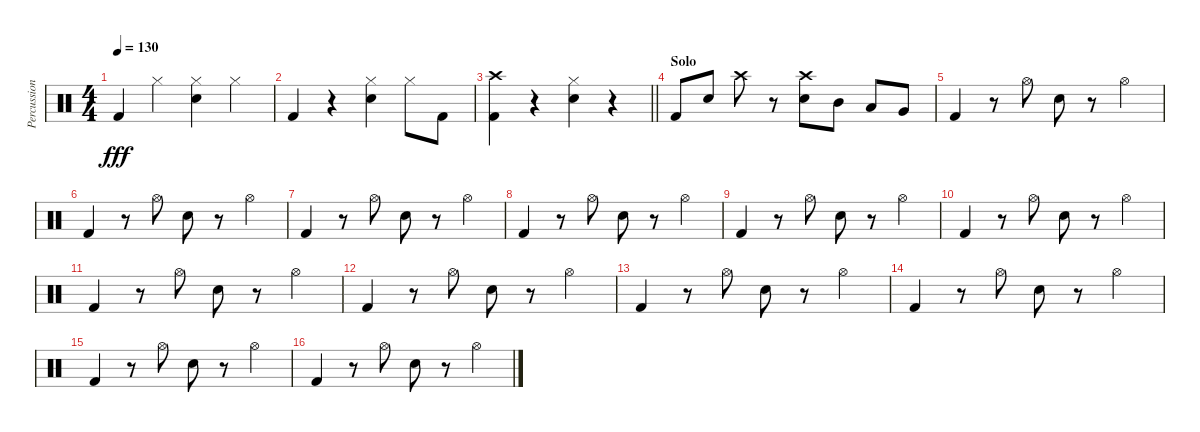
\track ("Percussion" "Percussion") {instrument percussion}
\staff {score}
\articulation defaults
\ts (4 4)
\tempo 130
\clef neutral
\ks c "Kick (hit) 2".4{dy fff} "Hi-Hat (closed)".4
("Hi-Hat (closed)" "Snare (hit) 2").4 "Hi-Hat (closed)".4 |
"Kick (hit) 2".4 r.4 ("Hi-Hat (closed)" "Snare (hit) 2").4 "Hi-Hat (closed)".8 "Kick (hit) 2".8 |
\barLineRight lightlight
("Crash high (hit)" "Kick (hit) 2").4 r.4 ("Hi-Hat (closed)" "Snare (hit) 2").4 r.4 |
\section ("" "Solo")
"Kick (hit) 2".8 "Snare (hit) 2".8 "Crash high (hit)".8 r.8 ("Crash high (hit)" "Snare (hit) 2").8 "Mid Tom (hit)".8 "Low Tom (hit)".8 "Very Low Tom (hit)".8 |
"Kick (hit) 2".4 r.8 "Hi-Hat (open)".8 "Snare (hit) 2".8 r.8 "Hi-Hat (open)".4 |
"Kick (hit) 2".4 r.8 "Hi-Hat (open)".8 "Snare (hit) 2".8 r.8 "Hi-Hat (open)".4 |
"Kick (hit) 2".4 r.8 "Hi-Hat (open)".8 "Snare (hit) 2".8 r.8 "Hi-Hat (open)".4 |
"Kick (hit) 2".4 r.8 "Hi-Hat (open)".8 "Snare (hit) 2".8 r.8 "Hi-Hat (open)".4 |
"Kick (hit) 2".4 r.8 "Hi-Hat (open)".8 "Snare (hit) 2".8 r.8 "Hi-Hat (open)".4 |
"Kick (hit) 2".4 r.8 "Hi-Hat (open)".8 "Snare (hit) 2".8 r.8 "Hi-Hat (open)".4 |
"Kick (hit) 2".4 r.8 "Hi-Hat (open)".8 "Snare (hit) 2".8 r.8 "Hi-Hat (open)".4 |
"Kick (hit) 2".4 r.8 "Hi-Hat (open)".8 "Snare (hit) 2".8 r.8 "Hi-Hat (open)".4 |
"Kick (hit) 2".4 r.8 "Hi-Hat (open)".8 "Snare (hit) 2".8 r.8 "Hi-Hat (open)".4 |
"Kick (hit) 2".4 r.8 "Hi-Hat (open)".8 "Snare (hit) 2".8 r.8 "Hi-Hat (open)".4 |
"Kick (hit) 2".4 r.8 "Hi-Hat (open)".8 "Snare (hit) 2".8 r.8 "Hi-Hat (open)".4 |
"Kick (hit) 2".4 r.8 "Hi-Hat (open)".8 "Snare (hit) 2".8 r.8 "Hi-Hat (open)".4
